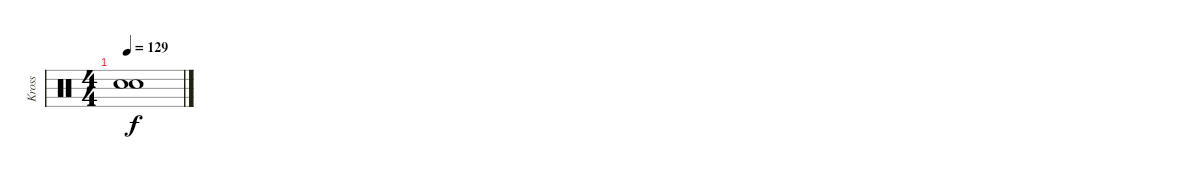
\track ("Kross" "Kross") {instrument percussion}
\staff {score}
\articulation defaults
\ts (4 4)
\tempo 129
\clef neutral
\ks c
("Snare (hit)"{t} "Snare (hit)"{t}).1{dy f}
